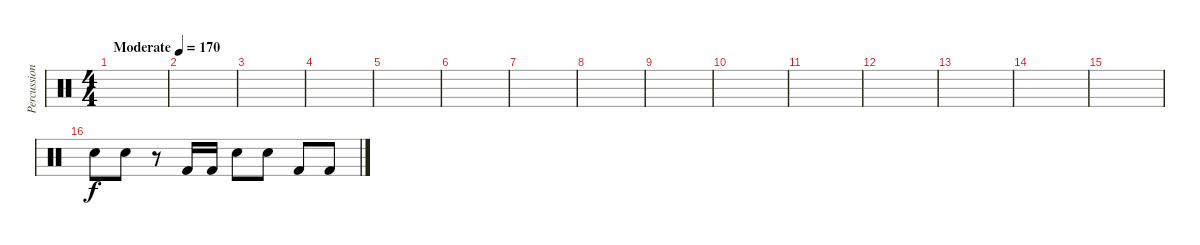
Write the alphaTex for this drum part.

\track ("Percussions" "Percussion") {instrument percussion}
\staff {score}
\articulation defaults
\ts (4 4)
\tempo (170 "Moderate")
\clef neutral
\ks c
|
|
|
|
|
|
|
|
|
|
|
|
|
|
|
"Snare (hit) 2".8 "Snare (hit) 2".8 r.8 "Kick (hit) 2".16 "Kick (hit) 2".16 "Snare (hit) 2".8 "Snare (hit) 2".8 "Kick (hit) 2".8 "Kick (hit) 2".8
